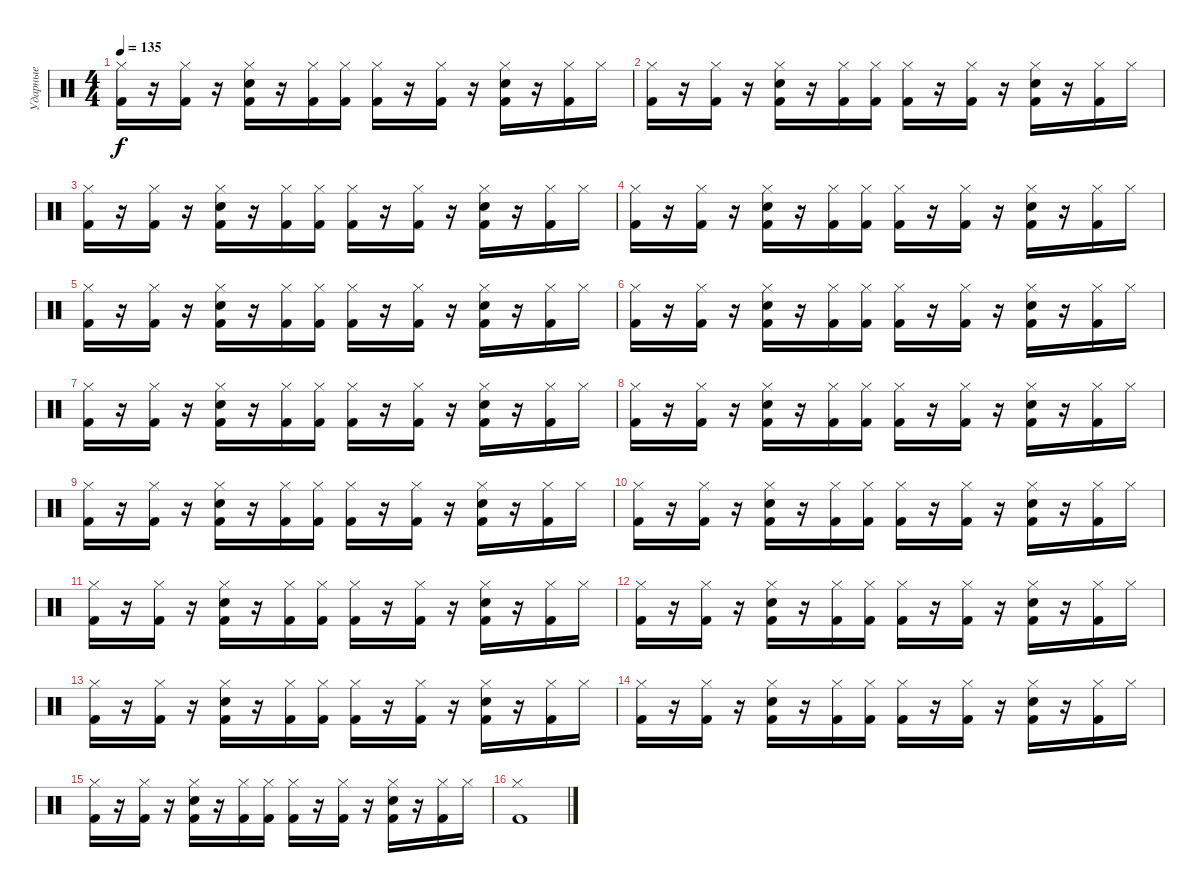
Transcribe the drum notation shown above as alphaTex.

\track ("Ударные" "Ударные") {instrument percussion}
\staff {score}
\articulation defaults
\ts (4 4)
\tempo 135
\clef neutral
\ks c
("Hi-Hat (closed)" "Kick (hit) 2").16{dy f} r.16 ("Hi-Hat (closed)" "Kick (hit) 2").16 r.16 ("Hi-Hat (closed)" "Electric Snare (hit)" "Kick (hit) 2").16 r.16 ("Hi-Hat (closed)" "Kick (hit) 2").16 ("Hi-Hat (closed)" "Kick (hit) 2").16 ("Hi-Hat (closed)" "Kick (hit) 2").16 r.16 ("Hi-Hat (closed)" "Kick (hit) 2").16 r.16 ("Hi-Hat (closed)" "Electric Snare (hit)" "Kick (hit) 2").16 r.16 ("Hi-Hat (closed)" "Kick (hit) 2").16 "Hi-Hat (closed)".16 |
("Hi-Hat (closed)" "Kick (hit) 2").16 r.16 ("Hi-Hat (closed)" "Kick (hit) 2").16 r.16 ("Hi-Hat (closed)" "Electric Snare (hit)" "Kick (hit) 2").16 r.16 ("Hi-Hat (closed)" "Kick (hit) 2").16 ("Hi-Hat (closed)" "Kick (hit) 2").16 ("Hi-Hat (closed)" "Kick (hit) 2").16 r.16 ("Hi-Hat (closed)" "Kick (hit) 2").16 r.16 ("Hi-Hat (closed)" "Electric Snare (hit)" "Kick (hit) 2").16 r.16 ("Hi-Hat (closed)" "Kick (hit) 2").16 "Hi-Hat (closed)".16 |
("Hi-Hat (closed)" "Kick (hit) 2").16 r.16 ("Hi-Hat (closed)" "Kick (hit) 2").16 r.16 ("Hi-Hat (closed)" "Electric Snare (hit)" "Kick (hit) 2").16 r.16 ("Hi-Hat (closed)" "Kick (hit) 2").16 ("Hi-Hat (closed)" "Kick (hit) 2").16 ("Hi-Hat (closed)" "Kick (hit) 2").16 r.16 ("Hi-Hat (closed)" "Kick (hit) 2").16 r.16 ("Hi-Hat (closed)" "Electric Snare (hit)" "Kick (hit) 2").16 r.16 ("Hi-Hat (closed)" "Kick (hit) 2").16 "Hi-Hat (closed)".16 |
("Hi-Hat (closed)" "Kick (hit) 2").16 r.16 ("Hi-Hat (closed)" "Kick (hit) 2").16 r.16 ("Hi-Hat (closed)" "Electric Snare (hit)" "Kick (hit) 2").16 r.16 ("Hi-Hat (closed)" "Kick (hit) 2").16 ("Hi-Hat (closed)" "Kick (hit) 2").16 ("Hi-Hat (closed)" "Kick (hit) 2").16 r.16 ("Hi-Hat (closed)" "Kick (hit) 2").16 r.16 ("Hi-Hat (closed)" "Electric Snare (hit)" "Kick (hit) 2").16 r.16 ("Hi-Hat (closed)" "Kick (hit) 2").16 "Hi-Hat (closed)".16 |
("Hi-Hat (closed)" "Kick (hit) 2").16 r.16 ("Hi-Hat (closed)" "Kick (hit) 2").16 r.16 ("Hi-Hat (closed)" "Electric Snare (hit)" "Kick (hit) 2").16 r.16 ("Hi-Hat (closed)" "Kick (hit) 2").16 ("Hi-Hat (closed)" "Kick (hit) 2").16 ("Hi-Hat (closed)" "Kick (hit) 2").16 r.16 ("Hi-Hat (closed)" "Kick (hit) 2").16 r.16 ("Hi-Hat (closed)" "Electric Snare (hit)" "Kick (hit) 2").16 r.16 ("Hi-Hat (closed)" "Kick (hit) 2").16 "Hi-Hat (closed)".16 |
("Hi-Hat (closed)" "Kick (hit) 2").16 r.16 ("Hi-Hat (closed)" "Kick (hit) 2").16 r.16 ("Hi-Hat (closed)" "Electric Snare (hit)" "Kick (hit) 2").16 r.16 ("Hi-Hat (closed)" "Kick (hit) 2").16 ("Hi-Hat (closed)" "Kick (hit) 2").16 ("Hi-Hat (closed)" "Kick (hit) 2").16 r.16 ("Hi-Hat (closed)" "Kick (hit) 2").16 r.16 ("Hi-Hat (closed)" "Electric Snare (hit)" "Kick (hit) 2").16 r.16 ("Hi-Hat (closed)" "Kick (hit) 2").16 "Hi-Hat (closed)".16 |
("Hi-Hat (closed)" "Kick (hit) 2").16 r.16 ("Hi-Hat (closed)" "Kick (hit) 2").16 r.16 ("Hi-Hat (closed)" "Electric Snare (hit)" "Kick (hit) 2").16 r.16 ("Hi-Hat (closed)" "Kick (hit) 2").16 ("Hi-Hat (closed)" "Kick (hit) 2").16 ("Hi-Hat (closed)" "Kick (hit) 2").16 r.16 ("Hi-Hat (closed)" "Kick (hit) 2").16 r.16 ("Hi-Hat (closed)" "Electric Snare (hit)" "Kick (hit) 2").16 r.16 ("Hi-Hat (closed)" "Kick (hit) 2").16 "Hi-Hat (closed)".16 |
("Hi-Hat (closed)" "Kick (hit) 2").16 r.16 ("Hi-Hat (closed)" "Kick (hit) 2").16 r.16 ("Hi-Hat (closed)" "Electric Snare (hit)" "Kick (hit) 2").16 r.16 ("Hi-Hat (closed)" "Kick (hit) 2").16 ("Hi-Hat (closed)" "Kick (hit) 2").16 ("Hi-Hat (closed)" "Kick (hit) 2").16 r.16 ("Hi-Hat (closed)" "Kick (hit) 2").16 r.16 ("Hi-Hat (closed)" "Electric Snare (hit)" "Kick (hit) 2").16 r.16 ("Hi-Hat (closed)" "Kick (hit) 2").16 "Hi-Hat (closed)".16 |
("Hi-Hat (closed)" "Kick (hit) 2").16 r.16 ("Hi-Hat (closed)" "Kick (hit) 2").16 r.16 ("Hi-Hat (closed)" "Electric Snare (hit)" "Kick (hit) 2").16 r.16 ("Hi-Hat (closed)" "Kick (hit) 2").16 ("Hi-Hat (closed)" "Kick (hit) 2").16 ("Hi-Hat (closed)" "Kick (hit) 2").16 r.16 ("Hi-Hat (closed)" "Kick (hit) 2").16 r.16 ("Hi-Hat (closed)" "Electric Snare (hit)" "Kick (hit) 2").16 r.16 ("Hi-Hat (closed)" "Kick (hit) 2").16 "Hi-Hat (closed)".16 |
("Hi-Hat (closed)" "Kick (hit) 2").16 r.16 ("Hi-Hat (closed)" "Kick (hit) 2").16 r.16 ("Hi-Hat (closed)" "Electric Snare (hit)" "Kick (hit) 2").16 r.16 ("Hi-Hat (closed)" "Kick (hit) 2").16 ("Hi-Hat (closed)" "Kick (hit) 2").16 ("Hi-Hat (closed)" "Kick (hit) 2").16 r.16 ("Hi-Hat (closed)" "Kick (hit) 2").16 r.16 ("Hi-Hat (closed)" "Electric Snare (hit)" "Kick (hit) 2").16 r.16 ("Hi-Hat (closed)" "Kick (hit) 2").16 "Hi-Hat (closed)".16 |
("Hi-Hat (closed)" "Kick (hit) 2").16 r.16 ("Hi-Hat (closed)" "Kick (hit) 2").16 r.16 ("Hi-Hat (closed)" "Electric Snare (hit)" "Kick (hit) 2").16 r.16 ("Hi-Hat (closed)" "Kick (hit) 2").16 ("Hi-Hat (closed)" "Kick (hit) 2").16 ("Hi-Hat (closed)" "Kick (hit) 2").16 r.16 ("Hi-Hat (closed)" "Kick (hit) 2").16 r.16 ("Hi-Hat (closed)" "Electric Snare (hit)" "Kick (hit) 2").16 r.16 ("Hi-Hat (closed)" "Kick (hit) 2").16 "Hi-Hat (closed)".16 |
("Hi-Hat (closed)" "Kick (hit) 2").16 r.16 ("Hi-Hat (closed)" "Kick (hit) 2").16 r.16 ("Hi-Hat (closed)" "Electric Snare (hit)" "Kick (hit) 2").16 r.16 ("Hi-Hat (closed)" "Kick (hit) 2").16 ("Hi-Hat (closed)" "Kick (hit) 2").16 ("Hi-Hat (closed)" "Kick (hit) 2").16 r.16 ("Hi-Hat (closed)" "Kick (hit) 2").16 r.16 ("Hi-Hat (closed)" "Electric Snare (hit)" "Kick (hit) 2").16 r.16 ("Hi-Hat (closed)" "Kick (hit) 2").16 "Hi-Hat (closed)".16 |
("Hi-Hat (closed)" "Kick (hit) 2").16 r.16 ("Hi-Hat (closed)" "Kick (hit) 2").16 r.16 ("Hi-Hat (closed)" "Electric Snare (hit)" "Kick (hit) 2").16 r.16 ("Hi-Hat (closed)" "Kick (hit) 2").16 ("Hi-Hat (closed)" "Kick (hit) 2").16 ("Hi-Hat (closed)" "Kick (hit) 2").16 r.16 ("Hi-Hat (closed)" "Kick (hit) 2").16 r.16 ("Hi-Hat (closed)" "Electric Snare (hit)" "Kick (hit) 2").16 r.16 ("Hi-Hat (closed)" "Kick (hit) 2").16 "Hi-Hat (closed)".16 |
("Hi-Hat (closed)" "Kick (hit) 2").16 r.16 ("Hi-Hat (closed)" "Kick (hit) 2").16 r.16 ("Hi-Hat (closed)" "Electric Snare (hit)" "Kick (hit) 2").16 r.16 ("Hi-Hat (closed)" "Kick (hit) 2").16 ("Hi-Hat (closed)" "Kick (hit) 2").16 ("Hi-Hat (closed)" "Kick (hit) 2").16 r.16 ("Hi-Hat (closed)" "Kick (hit) 2").16 r.16 ("Hi-Hat (closed)" "Electric Snare (hit)" "Kick (hit) 2").16 r.16 ("Hi-Hat (closed)" "Kick (hit) 2").16 "Hi-Hat (closed)".16 |
("Hi-Hat (closed)" "Kick (hit) 2").16 r.16 ("Hi-Hat (closed)" "Kick (hit) 2").16 r.16 ("Hi-Hat (closed)" "Electric Snare (hit)" "Kick (hit) 2").16 r.16 ("Hi-Hat (closed)" "Kick (hit) 2").16 ("Hi-Hat (closed)" "Kick (hit) 2").16 ("Hi-Hat (closed)" "Kick (hit) 2").16 r.16 ("Hi-Hat (closed)" "Kick (hit) 2").16 r.16 ("Hi-Hat (closed)" "Electric Snare (hit)" "Kick (hit) 2").16 r.16 ("Hi-Hat (closed)" "Kick (hit) 2").16 "Hi-Hat (closed)".16 |
("Hi-Hat (closed)" "Kick (hit) 2").1
